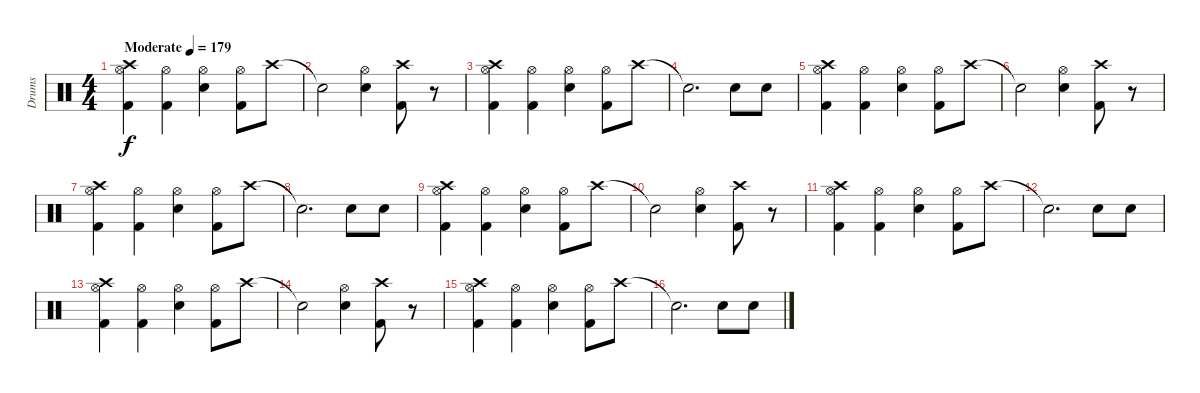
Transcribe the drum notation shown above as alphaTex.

\track ("Drums" "Drums") {instrument percussion}
\staff {score}
\articulation defaults
\ts (4 4)
\tempo (179 "Moderate")
\clef neutral
\ks c
("Hi-Hat (open)" "Crash high (hit)" "Kick (hit) 2").4{dy f} ("Hi-Hat (open)" "Kick (hit) 2").4 ("Hi-Hat (open)" "Snare (hit) 2").4 ("Hi-Hat (open)" "Kick (hit) 2").8 "Crash high (hit)".8 |
"Snare (hit)"{t}.2 ("Hi-Hat (open)" "Snare (hit) 2").4 ("Crash high (hit)" "Kick (hit) 2").8 r.8 |
("Hi-Hat (open)" "Crash high (hit)" "Kick (hit) 2").4 ("Hi-Hat (open)" "Kick (hit) 2").4 ("Hi-Hat (open)" "Snare (hit) 2").4 ("Hi-Hat (open)" "Kick (hit) 2").8 "Crash high (hit)".8 |
"Snare (hit)"{t}.2{d} "Snare (hit) 2".8 "Snare (hit) 2".8 |
("Hi-Hat (open)" "Crash high (hit)" "Kick (hit) 2").4 ("Hi-Hat (open)" "Kick (hit) 2").4 ("Hi-Hat (open)" "Snare (hit) 2").4 ("Hi-Hat (open)" "Kick (hit) 2").8 "Crash high (hit)".8 |
"Snare (hit)"{t}.2 ("Hi-Hat (open)" "Snare (hit) 2").4 ("Crash high (hit)" "Kick (hit) 2").8 r.8 |
("Hi-Hat (open)" "Crash high (hit)" "Kick (hit) 2").4 ("Hi-Hat (open)" "Kick (hit) 2").4 ("Hi-Hat (open)" "Snare (hit) 2").4 ("Hi-Hat (open)" "Kick (hit) 2").8 "Crash high (hit)".8 |
"Snare (hit)"{t}.2{d} "Snare (hit) 2".8 "Snare (hit) 2".8 |
("Hi-Hat (open)" "Crash high (hit)" "Kick (hit) 2").4 ("Hi-Hat (open)" "Kick (hit) 2").4 ("Hi-Hat (open)" "Snare (hit) 2").4 ("Hi-Hat (open)" "Kick (hit) 2").8 "Crash high (hit)".8 |
"Snare (hit)"{t}.2 ("Hi-Hat (open)" "Snare (hit) 2").4 ("Crash high (hit)" "Kick (hit) 2").8 r.8 |
("Hi-Hat (open)" "Crash high (hit)" "Kick (hit) 2").4 ("Hi-Hat (open)" "Kick (hit) 2").4 ("Hi-Hat (open)" "Snare (hit) 2").4 ("Hi-Hat (open)" "Kick (hit) 2").8 "Crash high (hit)".8 |
"Snare (hit)"{t}.2{d} "Snare (hit) 2".8 "Snare (hit) 2".8 |
("Hi-Hat (open)" "Crash high (hit)" "Kick (hit) 2").4 ("Hi-Hat (open)" "Kick (hit) 2").4 ("Hi-Hat (open)" "Snare (hit) 2").4 ("Hi-Hat (open)" "Kick (hit) 2").8 "Crash high (hit)".8 |
"Snare (hit)"{t}.2 ("Hi-Hat (open)" "Snare (hit) 2").4 ("Crash high (hit)" "Kick (hit) 2").8 r.8 |
("Hi-Hat (open)" "Crash high (hit)" "Kick (hit) 2").4 ("Hi-Hat (open)" "Kick (hit) 2").4 ("Hi-Hat (open)" "Snare (hit) 2").4 ("Hi-Hat (open)" "Kick (hit) 2").8 "Crash high (hit)".8 |
"Snare (hit)"{t}.2{d} "Snare (hit) 2".8 "Snare (hit) 2".8
